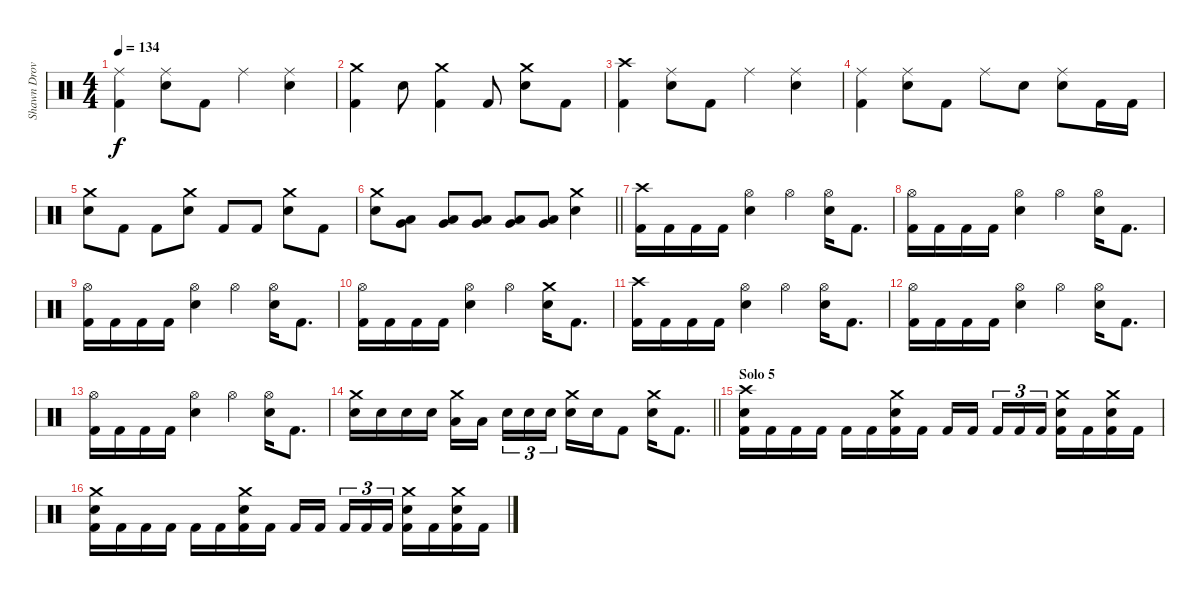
\track ("Shawn Drover" "Shawn Drov") {instrument percussion}
\staff {score}
\articulation defaults
\ts (4 4)
\tempo 134
\clef neutral
\ks c
("Ride (middle)" "Kick (hit) 2").4{dy f} ("Ride (middle)" "Snare (hit) 2").8 "Kick (hit) 2".8 "Ride (middle)".4 ("Ride (middle)" "Snare (hit) 2").4 |
("Crash medium (hit)" "Kick (hit) 2").4 "Snare (hit) 2".8 ("Crash medium (hit)" "Kick (hit) 2").4 "Kick (hit) 2".8 ("Crash medium (hit)" "Snare (hit) 2").8 "Kick (hit) 2".8 |
("Crash high (hit)" "Kick (hit) 2").4 ("Ride (middle)" "Snare (hit) 2").8 "Kick (hit) 2".8 "Ride (middle)".4 ("Ride (middle)" "Snare (hit) 2").4 |
("Ride (middle)" "Kick (hit) 2").4 ("Ride (middle)" "Snare (hit) 2").8 "Kick (hit) 2".8 "Ride (middle)".8 "Snare (hit) 2".8 ("Ride (middle)" "Snare (hit) 2").8 "Kick (hit) 2".16 "Kick (hit) 2".16 |
("Crash medium (hit)" "Snare (hit) 2").8 "Kick (hit) 2".8 "Kick (hit) 2".8 ("Crash medium (hit)" "Snare (hit) 2").8 "Kick (hit) 2".8 "Kick (hit) 2".8 ("Crash medium (hit)" "Snare (hit) 2").8 "Kick (hit) 2".8 |
\barLineRight lightlight
("Crash medium (hit)" "Snare (hit) 2").8 ("Low Tom (hit)" "Very Low Tom (hit)").8 ("Low Tom (hit)" "Very Low Tom (hit)").8 ("Low Tom (hit)" "Very Low Tom (hit)").8 ("Very Low Tom (hit)" "Low Floor Tom (hit)").8 ("Very Low Tom (hit)" "Low Floor Tom (hit)").8 ("Crash medium (hit)" "Snare (hit) 2").4 |
\section ("" "")
("Crash high (hit)" "Kick (hit) 2").16 "Kick (hit) 2".16 "Kick (hit) 2".16 "Kick (hit) 2".16 ("Hi-Hat (open)" "Snare (hit) 2").4 "Hi-Hat (open)".4 ("Hi-Hat (open)" "Snare (hit) 2").16 "Kick (hit) 2".8{d} |
("Hi-Hat (open)" "Kick (hit) 2").16 "Kick (hit) 2".16 "Kick (hit) 2".16 "Kick (hit) 2".16 ("Hi-Hat (open)" "Snare (hit) 2").4 "Hi-Hat (open)".4 ("Hi-Hat (open)" "Snare (hit) 2").16 "Kick (hit) 2".8{d} |
("Hi-Hat (open)" "Kick (hit) 2").16 "Kick (hit) 2".16 "Kick (hit) 2".16 "Kick (hit) 2".16 ("Hi-Hat (open)" "Snare (hit) 2").4 "Hi-Hat (open)".4 ("Hi-Hat (open)" "Snare (hit) 2").16 "Kick (hit) 2".8{d} |
("Hi-Hat (open)" "Kick (hit) 2").16 "Kick (hit) 2".16 "Kick (hit) 2".16 "Kick (hit) 2".16 ("Hi-Hat (open)" "Snare (hit) 2").4 "Hi-Hat (open)".4 ("Crash medium (hit)" "Snare (hit) 2").16 "Kick (hit) 2".8{d} |
("Crash high (hit)" "Kick (hit) 2").16 "Kick (hit) 2".16 "Kick (hit) 2".16 "Kick (hit) 2".16 ("Hi-Hat (open)" "Snare (hit) 2").4 "Hi-Hat (open)".4 ("Hi-Hat (open)" "Snare (hit) 2").16 "Kick (hit) 2".8{d} |
("Hi-Hat (open)" "Kick (hit) 2").16 "Kick (hit) 2".16 "Kick (hit) 2".16 "Kick (hit) 2".16 ("Hi-Hat (open)" "Snare (hit) 2").4 "Hi-Hat (open)".4 ("Hi-Hat (open)" "Snare (hit) 2").16 "Kick (hit) 2".8{d} |
("Hi-Hat (open)" "Kick (hit) 2").16 "Kick (hit) 2".16 "Kick (hit) 2".16 "Kick (hit) 2".16 ("Hi-Hat (open)" "Snare (hit) 2").4 "Hi-Hat (open)".4 ("Hi-Hat (open)" "Snare (hit) 2").16 "Kick (hit) 2".8{d} |
\barLineRight lightlight
("Crash medium (hit)" "Snare (hit) 2").16 "Snare (hit) 2".16 "Snare (hit) 2".16 "Snare (hit) 2".16 ("Crash medium (hit)" "Low Floor Tom (hit)").16 "Low Floor Tom (hit)".16{beam splitsecondary} "Snare (hit) 2".16{tu (3 2)} "Snare (hit) 2".16{tu (3 2)} "Snare (hit) 2".16{tu (3 2)} ("Crash medium (hit)" "Snare (hit) 2").16 "Snare (hit) 2".16 "Kick (hit) 2".8 ("Crash medium (hit)" "Snare (hit) 2").16 "Kick (hit) 2".8{d} |
\section ("" "Solo 5")
("Crash high (hit)" "Snare (hit) 2" "Kick (hit) 2").16 "Kick (hit) 2".16 "Kick (hit) 2".16 "Kick (hit) 2".16 "Kick (hit) 2".16 "Kick (hit) 2".16 ("Crash medium (hit)" "Snare (hit) 2" "Kick (hit) 2").16 "Kick (hit) 2".16 "Kick (hit) 2".16 "Kick (hit) 2".16{beam splitsecondary} "Kick (hit) 2".16{tu (3 2)} "Kick (hit) 2".16{tu (3 2)} "Kick (hit) 2".16{tu (3 2)} ("Crash medium (hit)" "Snare (hit) 2" "Kick (hit) 2").16 "Kick (hit) 2".16 ("Crash medium (hit)" "Snare (hit) 2" "Kick (hit) 2").16 "Kick (hit) 2".16 |
("Crash medium (hit)" "Snare (hit) 2" "Kick (hit) 2").16 "Kick (hit) 2".16 "Kick (hit) 2".16 "Kick (hit) 2".16 "Kick (hit) 2".16 "Kick (hit) 2".16 ("Crash medium (hit)" "Snare (hit) 2" "Kick (hit) 2").16 "Kick (hit) 2".16 "Kick (hit) 2".16 "Kick (hit) 2".16{beam splitsecondary} "Kick (hit) 2".16{tu (3 2)} "Kick (hit) 2".16{tu (3 2)} "Kick (hit) 2".16{tu (3 2)} ("Crash medium (hit)" "Snare (hit) 2" "Kick (hit) 2").16 "Kick (hit) 2".16 ("Crash medium (hit)" "Snare (hit) 2" "Kick (hit) 2").16 "Kick (hit) 2".16
